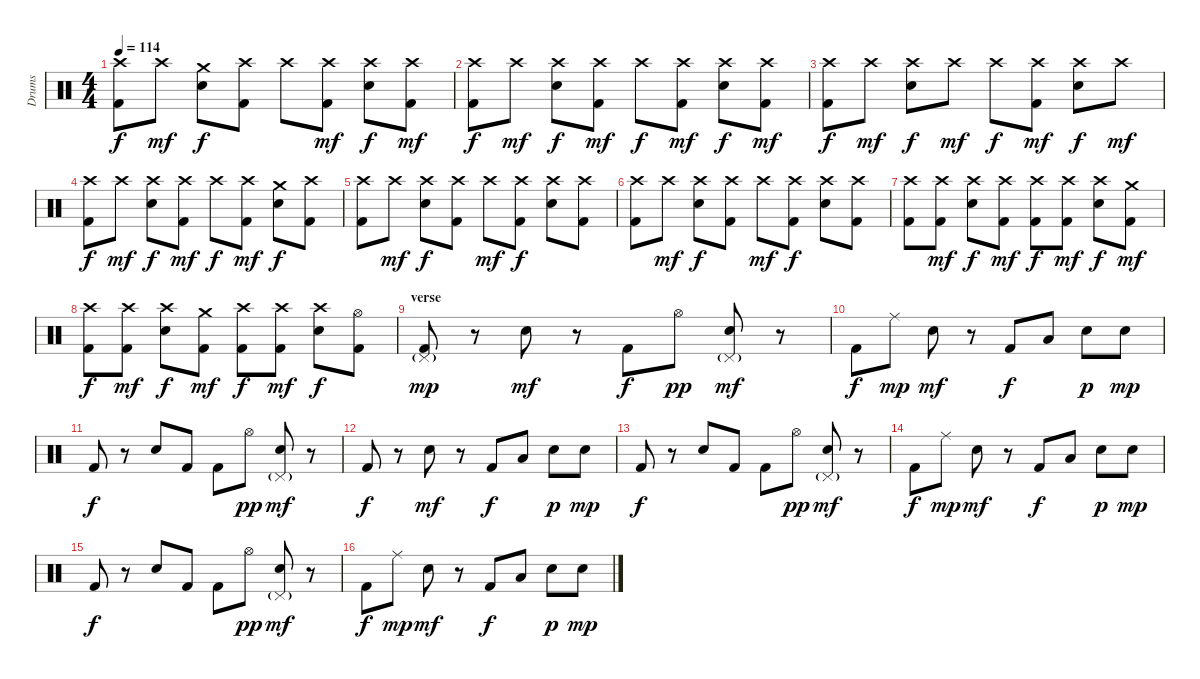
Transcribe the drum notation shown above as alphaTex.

\track ("Drums" "Drums") {instrument percussion}
\staff {score}
\articulation defaults
\ts (4 4)
\tempo 114
\clef neutral
\ks c
("Crash high (hit)" "Kick (hit) 2").8{dy f} "Crash high (hit)".8{dy mf} ("Crash medium (hit)" "Snare (hit) 2").8{dy f} ("Crash high (hit)" "Kick (hit) 2").8 "Crash high (hit)".8 ("Crash high (hit)" "Kick (hit) 2").8{dy mf} ("Crash high (hit)" "Snare (hit) 2").8{dy f} ("Crash high (hit)" "Kick (hit) 2").8{dy mf} |
("Crash high (hit)" "Kick (hit) 2").8{dy f} "Crash high (hit)".8{dy mf} ("Crash high (hit)" "Snare (hit) 2").8{dy f} ("Crash high (hit)" "Kick (hit) 2").8{dy mf} "Crash high (hit)".8{dy f} ("Crash high (hit)" "Kick (hit) 2").8{dy mf} ("Crash high (hit)" "Snare (hit) 2").8{dy f} ("Crash high (hit)" "Kick (hit) 2").8{dy mf} |
("Crash high (hit)" "Kick (hit) 2").8{dy f} "Crash high (hit)".8{dy mf} ("Crash high (hit)" "Snare (hit) 2").8{dy f} "Crash high (hit)".8{dy mf} "Crash high (hit)".8{dy f} ("Crash high (hit)" "Kick (hit) 2").8{dy mf} ("Crash high (hit)" "Snare (hit) 2").8{dy f} "Crash high (hit)".8{dy mf} |
("Crash high (hit)" "Kick (hit) 2").8{dy f} "Crash high (hit)".8{dy mf} ("Crash high (hit)" "Snare (hit) 2").8{dy f} ("Crash high (hit)" "Kick (hit) 2").8{dy mf} "Crash high (hit)".8{dy f} ("Crash high (hit)" "Kick (hit) 2").8{dy mf} ("Crash medium (hit)" "Snare (hit) 2").8{dy f} ("Crash high (hit)" "Kick (hit) 2").8 |
("Crash high (hit)" "Kick (hit) 2").8 "Crash high (hit)".8{dy mf} ("Crash high (hit)" "Snare (hit) 2").8{dy f} ("Crash high (hit)" "Kick (hit) 2").8 "Crash high (hit)".8{dy mf} ("Crash high (hit)" "Kick (hit) 2").8{dy f} ("Crash high (hit)" "Snare (hit) 2").8 ("Crash high (hit)" "Kick (hit) 2").8 |
("Crash high (hit)" "Kick (hit) 2").8 "Crash high (hit)".8{dy mf} ("Crash high (hit)" "Snare (hit) 2").8{dy f} ("Crash high (hit)" "Kick (hit) 2").8 "Crash high (hit)".8{dy mf} ("Crash high (hit)" "Kick (hit) 2").8{dy f} ("Crash high (hit)" "Snare (hit) 2").8 ("Crash high (hit)" "Kick (hit) 2").8 |
("Crash high (hit)" "Kick (hit) 2").8 ("Crash high (hit)" "Kick (hit) 2").8{dy mf} ("Crash high (hit)" "Snare (hit) 2").8{dy f} ("Crash high (hit)" "Kick (hit) 2").8{dy mf} ("Crash high (hit)" "Kick (hit) 2").8{dy f} ("Crash high (hit)" "Kick (hit) 2").8{dy mf} ("Crash high (hit)" "Snare (hit) 2").8{dy f} ("Crash medium (hit)" "Kick (hit) 2").8{dy mf} |
("Crash high (hit)" "Kick (hit) 2").8{dy f} ("Crash high (hit)" "Kick (hit) 2").8{dy mf} ("Crash high (hit)" "Snare (hit) 2").8{dy f} ("Crash medium (hit)" "Kick (hit) 2").8{dy mf} ("Crash high (hit)" "Kick (hit) 2").8{dy f} ("Crash high (hit)" "Kick (hit) 2").8{dy mf} ("Crash high (hit)" "Snare (hit) 2").8{dy f} ("Hi-Hat (open)" "Kick (hit) 2").8 |
\section ("" "verse")
("Pedal Hi-Hat (hit)"{g} "Kick (hit) 2").8{dy mp} r.8 "Snare (hit) 2".8{dy mf} r.8 "Kick (hit) 2".8{dy f} "Hi-Hat (open)".8{dy pp} ("Pedal Hi-Hat (hit)"{g} "Snare (hit) 2").8{dy mf} r.8 |
"Kick (hit) 2".8{dy f} "Ride (middle)".8{dy mp} "Snare (hit) 2".8{dy mf} r.8 "Kick (hit) 2".8{dy f} "Low Tom (hit)".8 "Snare (hit) 2".8{dy p} "Snare (hit) 2".8{dy mp} |
"Kick (hit) 2".8{dy f} r.8 "Snare (hit) 2".8 "Kick (hit) 2".8 "Kick (hit) 2".8 "Hi-Hat (open)".8{dy pp} ("Pedal Hi-Hat (hit)"{g} "Snare (hit) 2").8{dy mf} r.8 |
"Kick (hit) 2".8{dy f} r.8 "Snare (hit) 2".8{dy mf} r.8 "Kick (hit) 2".8{dy f} "Low Tom (hit)".8 "Snare (hit) 2".8{dy p} "Snare (hit) 2".8{dy mp} |
"Kick (hit) 2".8{dy f} r.8 "Snare (hit) 2".8 "Kick (hit) 2".8 "Kick (hit) 2".8 "Hi-Hat (open)".8{dy pp} ("Pedal Hi-Hat (hit)"{g} "Snare (hit) 2").8{dy mf} r.8 |
"Kick (hit) 2".8{dy f} "Ride (middle)".8{dy mp} "Snare (hit) 2".8{dy mf} r.8 "Kick (hit) 2".8{dy f} "Low Tom (hit)".8 "Snare (hit) 2".8{dy p} "Snare (hit) 2".8{dy mp} |
"Kick (hit) 2".8{dy f} r.8 "Snare (hit) 2".8 "Kick (hit) 2".8 "Kick (hit) 2".8 "Hi-Hat (open)".8{dy pp} ("Pedal Hi-Hat (hit)"{g} "Snare (hit) 2").8{dy mf} r.8 |
"Kick (hit) 2".8{dy f} "Ride (middle)".8{dy mp} "Snare (hit) 2".8{dy mf} r.8 "Kick (hit) 2".8{dy f} "Low Tom (hit)".8 "Snare (hit) 2".8{dy p} "Snare (hit) 2".8{dy mp}
